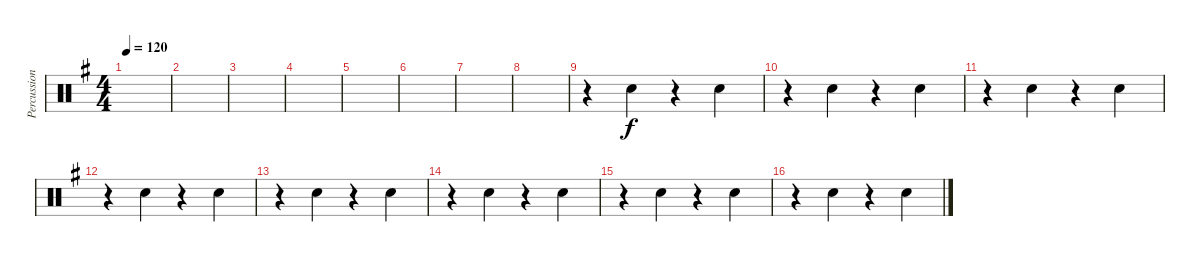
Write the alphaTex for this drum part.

\track ("Percussion" "Percussion") {instrument percussion}
\staff {score}
\articulation defaults
\ts (4 4)
\tempo 120
\clef neutral
\ks g
|
|
|
|
|
|
|
|
r.4 "Hand Clap (hit)".4 r.4 "Hand Clap (hit)".4 |
r.4 "Hand Clap (hit)".4 r.4 "Hand Clap (hit)".4 |
r.4 "Hand Clap (hit)".4 r.4 "Hand Clap (hit)".4 |
r.4 "Hand Clap (hit)".4 r.4 "Hand Clap (hit)".4 |
r.4 "Hand Clap (hit)".4 r.4 "Hand Clap (hit)".4 |
r.4 "Hand Clap (hit)".4 r.4 "Hand Clap (hit)".4 |
r.4 "Hand Clap (hit)".4 r.4 "Hand Clap (hit)".4 |
r.4 "Hand Clap (hit)".4 r.4 "Hand Clap (hit)".4
